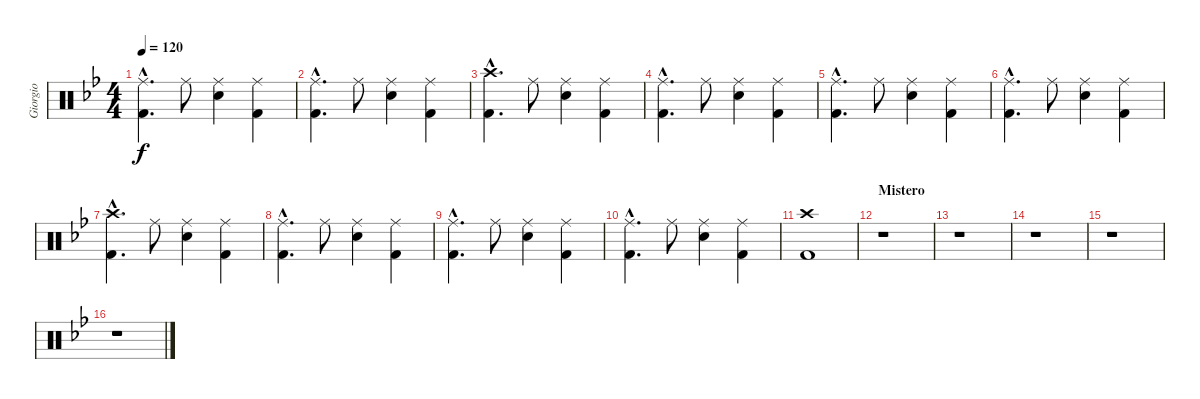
\track ("Giorgio" "Giorgio") {instrument percussion}
\staff {score}
\articulation defaults
\ts (4 4)
\tempo 120
\clef neutral
\ks gminor
("Ride (middle)"{hac} "Kick (hit) 2"{hac}).4{d dy f} "Ride (middle)".8 ("Ride (middle)" "Snare (hit) 2").4 ("Kick (hit) 2" "Ride (middle)").4 |
("Ride (middle)"{hac} "Kick (hit) 2"{hac}).4{d} "Ride (middle)".8 ("Ride (middle)" "Snare (hit) 2").4 ("Kick (hit) 2" "Ride (middle)").4 |
("Crash high (hit)"{hac} "Kick (hit) 2"{hac}).4{d} "Ride (middle)".8 ("Ride (middle)" "Snare (hit) 2").4 ("Ride (middle)" "Kick (hit) 2").4 |
("Ride (middle)"{hac} "Kick (hit) 2"{hac}).4{d} "Ride (middle)".8 ("Ride (middle)" "Snare (hit) 2").4 ("Kick (hit) 2" "Ride (middle)").4 |
("Ride (middle)"{hac} "Kick (hit) 2"{hac}).4{d} "Ride (middle)".8 ("Ride (middle)" "Snare (hit) 2").4 ("Kick (hit) 2" "Ride (middle)").4 |
("Ride (middle)"{hac} "Kick (hit) 2"{hac}).4{d} "Ride (middle)".8 ("Ride (middle)" "Snare (hit) 2").4 ("Kick (hit) 2" "Ride (middle)").4 |
("Crash high (hit)"{hac} "Kick (hit) 2"{hac}).4{d} "Ride (middle)".8 ("Ride (middle)" "Snare (hit) 2").4 ("Ride (middle)" "Kick (hit) 2").4 |
("Ride (middle)"{hac} "Kick (hit) 2"{hac}).4{d} "Ride (middle)".8 ("Ride (middle)" "Snare (hit) 2").4 ("Kick (hit) 2" "Ride (middle)").4 |
("Ride (middle)"{hac} "Kick (hit) 2"{hac}).4{d} "Ride (middle)".8 ("Ride (middle)" "Snare (hit) 2").4 ("Kick (hit) 2" "Ride (middle)").4 |
("Ride (middle)"{hac} "Kick (hit) 2"{hac}).4{d} "Ride (middle)".8 ("Ride (middle)" "Snare (hit) 2").4 ("Kick (hit) 2" "Ride (middle)").4 |
("Crash high (hit)" "Kick (hit) 2").1 |
\section ("" "Mistero")
r.1 |
r.1 |
r.1 |
r.1 |
r.1
